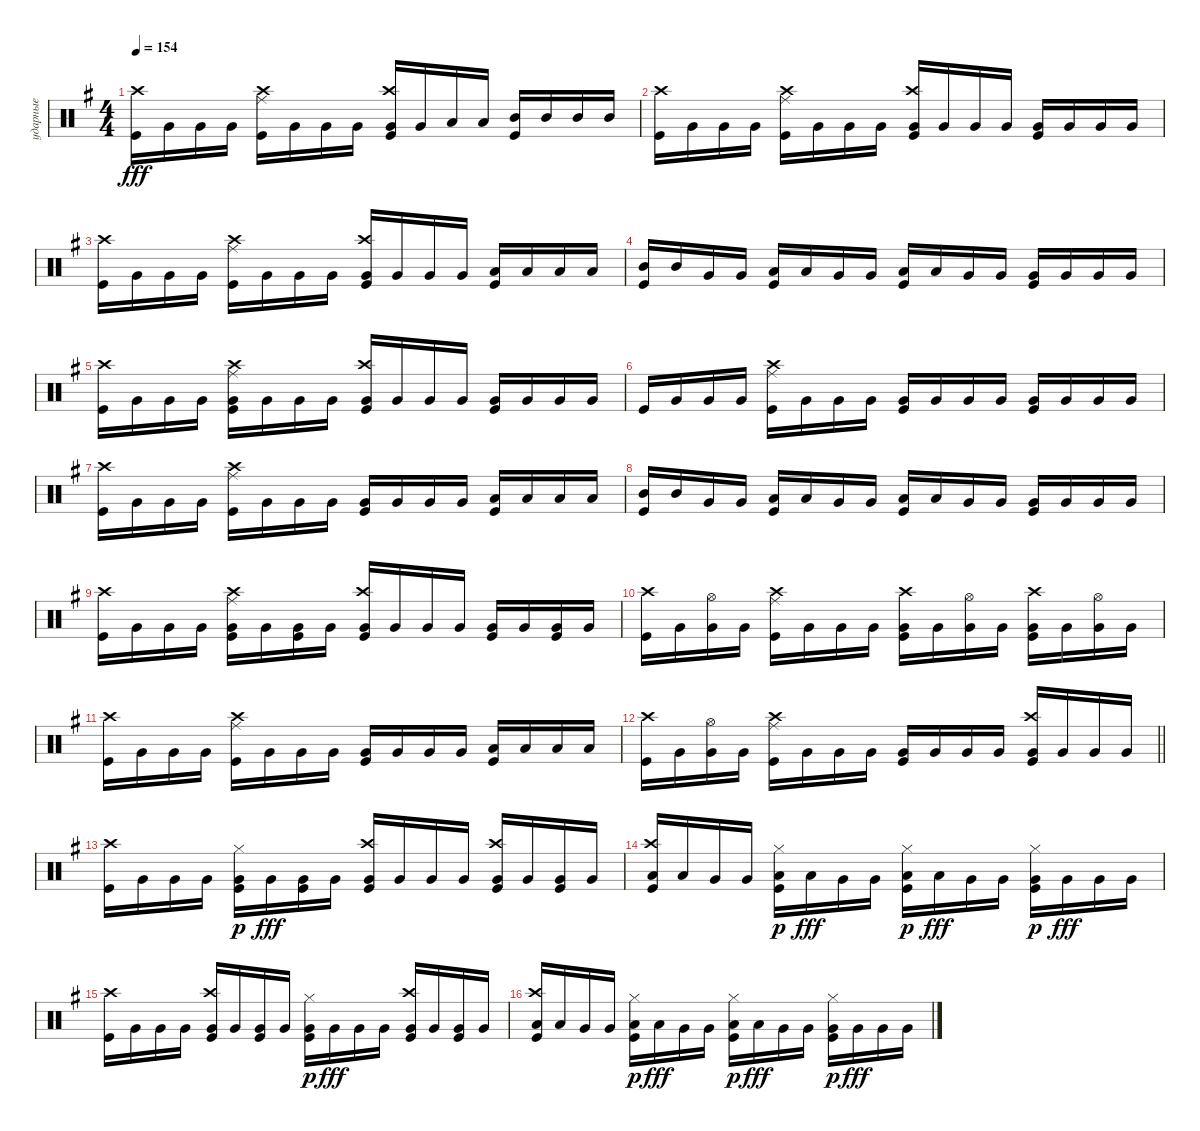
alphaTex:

\track ("ударные" "ударные") {instrument percussion}
\staff {score}
\articulation defaults
\ts (4 4)
\section ("" "")
\tempo 154
\clef neutral
\ks eminor
("Kick (hit)" "Crash high (hit)").16{dy fff} "Very Low Tom (hit)".16 "Very Low Tom (hit)".16 "Very Low Tom (hit)".16 ("Kick (hit)" "Crash high (hit)" "Ride (middle)").16 "Very Low Tom (hit)".16 "Very Low Tom (hit)".16 "Very Low Tom (hit)".16 ("Kick (hit)" "Crash high (hit)" "Very Low Tom (hit)").16 "Very Low Tom (hit)".16 "Low Tom (hit)".16 "Low Tom (hit)".16 ("Mid Tom (hit)" "Kick (hit)").16 "Mid Tom (hit)".16 "Mid Tom (hit)".16 "Mid Tom (hit)".16 |
("Kick (hit)" "Crash high (hit)").16 "Very Low Tom (hit)".16 "Very Low Tom (hit)".16 "Very Low Tom (hit)".16 ("Kick (hit)" "Crash high (hit)" "Ride (middle)").16 "Very Low Tom (hit)".16 "Very Low Tom (hit)".16 "Very Low Tom (hit)".16 ("Kick (hit)" "Crash high (hit)" "Very Low Tom (hit)").16 "Very Low Tom (hit)".16 "Very Low Tom (hit)".16 "Very Low Tom (hit)".16 ("Kick (hit)" "Very Low Tom (hit)").16 "Very Low Tom (hit)".16 "Very Low Tom (hit)".16 "Very Low Tom (hit)".16 |
("Kick (hit)" "Crash high (hit)").16 "Very Low Tom (hit)".16 "Very Low Tom (hit)".16 "Very Low Tom (hit)".16 ("Kick (hit)" "Crash high (hit)" "Ride (middle)").16 "Very Low Tom (hit)".16 "Very Low Tom (hit)".16 "Very Low Tom (hit)".16 ("Kick (hit)" "Crash high (hit)" "Very Low Tom (hit)").16 "Very Low Tom (hit)".16 "Very Low Tom (hit)".16 "Very Low Tom (hit)".16 ("Kick (hit)" "Low Tom (hit)").16 "Low Tom (hit)".16 "Low Tom (hit)".16 "Low Tom (hit)".16 |
("Mid Tom (hit)" "Kick (hit)").16 "Mid Tom (hit)".16 "Very Low Tom (hit)".16 "Very Low Tom (hit)".16 ("Low Tom (hit)" "Kick (hit)").16 "Low Tom (hit)".16 "Very Low Tom (hit)".16 "Very Low Tom (hit)".16 ("Low Floor Tom (hit)" "Kick (hit)").16 "Low Floor Tom (hit)".16 "Very Low Tom (hit)".16 "Very Low Tom (hit)".16 ("Very Low Tom (hit)" "Kick (hit)").16 "Very Low Tom (hit)".16 "Very Low Tom (hit)".16 "Very Low Tom (hit)".16 |
("Kick (hit)" "Crash high (hit)").16 "Very Low Tom (hit)".16 "Very Low Tom (hit)".16 "Very Low Tom (hit)".16 ("Kick (hit)" "Crash high (hit)" "Ride (middle)" "Very Low Tom (hit)").16 "Very Low Tom (hit)".16 "Very Low Tom (hit)".16 "Very Low Tom (hit)".16 ("Kick (hit)" "Crash high (hit)" "Very Low Tom (hit)").16 "Very Low Tom (hit)".16 "Very Low Tom (hit)".16 "Very Low Tom (hit)".16 ("Kick (hit)" "Very Low Tom (hit)").16 "Very Low Tom (hit)".16 "Very Low Tom (hit)".16 "Very Low Tom (hit)".16 |
"Kick (hit)".16 "Very Low Tom (hit)".16 "Very Low Tom (hit)".16 "Very Low Tom (hit)".16 ("Kick (hit)" "Crash high (hit)" "Ride (middle)").16 "Very Low Tom (hit)".16 "Very Low Tom (hit)".16 "Very Low Tom (hit)".16 ("Kick (hit)" "Very Low Tom (hit)").16 "Very Low Tom (hit)".16 "Very Low Tom (hit)".16 "Very Low Tom (hit)".16 ("Kick (hit)" "Very Low Tom (hit)").16 "Very Low Tom (hit)".16 "Very Low Tom (hit)".16 "Very Low Tom (hit)".16 |
("Kick (hit)" "Crash high (hit)").16 "Very Low Tom (hit)".16 "Very Low Tom (hit)".16 "Very Low Tom (hit)".16 ("Kick (hit)" "Crash high (hit)" "Ride (middle)").16 "Very Low Tom (hit)".16 "Very Low Tom (hit)".16 "Very Low Tom (hit)".16 ("Kick (hit)" "Very Low Tom (hit)").16 "Very Low Tom (hit)".16 "Very Low Tom (hit)".16 "Very Low Tom (hit)".16 ("Kick (hit)" "Low Tom (hit)").16 "Low Tom (hit)".16 "Low Tom (hit)".16 "Low Tom (hit)".16 |
("Mid Tom (hit)" "Kick (hit)").16 "Mid Tom (hit)".16 "Very Low Tom (hit)".16 "Very Low Tom (hit)".16 ("Low Tom (hit)" "Kick (hit)").16 "Low Tom (hit)".16 "Very Low Tom (hit)".16 "Very Low Tom (hit)".16 ("Low Floor Tom (hit)" "Kick (hit)").16 "Low Floor Tom (hit)".16 "Very Low Tom (hit)".16 "Very Low Tom (hit)".16 ("Very Low Tom (hit)" "Kick (hit)").16 "Very Low Tom (hit)".16 "Very Low Tom (hit)".16 "Very Low Tom (hit)".16 |
("Kick (hit)" "Crash high (hit)").16 "Very Low Tom (hit)".16 "Very Low Tom (hit)".16 "Very Low Tom (hit)".16 ("Kick (hit)" "Crash high (hit)" "Ride (middle)" "Very Low Tom (hit)").16 "Very Low Tom (hit)".16 ("Kick (hit)" "Very Low Tom (hit)").16 "Very Low Tom (hit)".16 ("Kick (hit)" "Crash high (hit)" "Very Low Tom (hit)").16 "Very Low Tom (hit)".16 "Very Low Tom (hit)".16 "Very Low Tom (hit)".16 ("Kick (hit)" "Very Low Tom (hit)").16 "Very Low Tom (hit)".16 ("Very Low Tom (hit)" "Kick (hit)").16 "Very Low Tom (hit)".16 |
("Kick (hit)" "Crash high (hit)").16 "Very Low Tom (hit)".16 ("Hi-Hat (open)" "Very Low Tom (hit)").16 "Very Low Tom (hit)".16 ("Kick (hit)" "Crash high (hit)" "Ride (middle)").16 "Very Low Tom (hit)".16 "Very Low Tom (hit)".16 "Very Low Tom (hit)".16 ("Kick (hit)" "Very Low Tom (hit)" "Crash high (hit)").16 "Very Low Tom (hit)".16 ("Very Low Tom (hit)" "Hi-Hat (open)").16 "Very Low Tom (hit)".16 ("Kick (hit)" "Very Low Tom (hit)" "Crash high (hit)").16 "Very Low Tom (hit)".16 ("Very Low Tom (hit)" "Hi-Hat (open)").16 "Very Low Tom (hit)".16 |
("Kick (hit)" "Crash high (hit)").16 "Very Low Tom (hit)".16 "Very Low Tom (hit)".16 "Very Low Tom (hit)".16 ("Kick (hit)" "Crash high (hit)" "Ride (middle)").16 "Very Low Tom (hit)".16 "Very Low Tom (hit)".16 "Very Low Tom (hit)".16 ("Kick (hit)" "Very Low Tom (hit)").16 "Very Low Tom (hit)".16 "Very Low Tom (hit)".16 "Very Low Tom (hit)".16 ("Kick (hit)" "Low Tom (hit)").16 "Low Tom (hit)".16 "Low Tom (hit)".16 "Low Tom (hit)".16 |
\barLineRight lightlight
("Kick (hit)" "Crash high (hit)").16 "Very Low Tom (hit)".16 ("Hi-Hat (open)" "Very Low Tom (hit)").16 "Very Low Tom (hit)".16 ("Kick (hit)" "Crash high (hit)" "Ride (middle)").16 "Very Low Tom (hit)".16 "Very Low Tom (hit)".16 "Very Low Tom (hit)".16 ("Very Low Tom (hit)" "Kick (hit)").16 "Very Low Tom (hit)".16 "Very Low Tom (hit)".16 "Very Low Tom (hit)".16 ("Kick (hit)" "Very Low Tom (hit)" "Crash high (hit)").16 "Very Low Tom (hit)".16 "Very Low Tom (hit)".16 "Very Low Tom (hit)".16 |
\section ("" "")
("Kick (hit)" "Crash high (hit)").16 "Very Low Tom (hit)".16 "Very Low Tom (hit)".16 "Very Low Tom (hit)".16 ("Kick (hit)" "Very Low Tom (hit)" "Hi-Hat (closed)").16{dy p} "Very Low Tom (hit)".16{dy fff} ("Kick (hit)" "Very Low Tom (hit)").16 "Very Low Tom (hit)".16 ("Kick (hit)" "Crash high (hit)" "Very Low Tom (hit)").16 "Very Low Tom (hit)".16 "Very Low Tom (hit)".16 "Very Low Tom (hit)".16 ("Kick (hit)" "Very Low Tom (hit)" "Crash high (hit)").16 "Very Low Tom (hit)".16 ("Very Low Tom (hit)" "Kick (hit)").16 "Very Low Tom (hit)".16 |
("Low Tom (hit)" "Kick (hit)" "Crash high (hit)").16 "Low Tom (hit)".16 "Very Low Tom (hit)".16 "Very Low Tom (hit)".16 ("Low Tom (hit)" "Kick (hit)" "Hi-Hat (closed)").16{dy p} "Low Tom (hit)".16{dy fff} "Very Low Tom (hit)".16 "Very Low Tom (hit)".16 ("Low Floor Tom (hit)" "Kick (hit)" "Hi-Hat (closed)").16{dy p} "Low Floor Tom (hit)".16{dy fff} "Very Low Tom (hit)".16 "Very Low Tom (hit)".16 ("Very Low Tom (hit)" "Kick (hit)" "Hi-Hat (closed)").16{dy p} "Very Low Tom (hit)".16{dy fff} "Very Low Tom (hit)".16 "Very Low Tom (hit)".16 |
("Kick (hit)" "Crash high (hit)").16 "Very Low Tom (hit)".16 "Very Low Tom (hit)".16 "Very Low Tom (hit)".16 ("Kick (hit)" "Very Low Tom (hit)" "Crash high (hit)").16 "Very Low Tom (hit)".16 ("Kick (hit)" "Very Low Tom (hit)").16 "Very Low Tom (hit)".16 ("Very Low Tom (hit)" "Kick (hit)" "Hi-Hat (closed)").16{dy p} "Very Low Tom (hit)".16{dy fff} "Very Low Tom (hit)".16 "Very Low Tom (hit)".16 ("Kick (hit)" "Very Low Tom (hit)" "Crash high (hit)").16 "Very Low Tom (hit)".16 ("Very Low Tom (hit)" "Kick (hit)").16 "Very Low Tom (hit)".16 |
("Low Tom (hit)" "Kick (hit)" "Crash high (hit)").16 "Low Tom (hit)".16 "Very Low Tom (hit)".16 "Very Low Tom (hit)".16 ("Low Tom (hit)" "Kick (hit)" "Hi-Hat (closed)").16{dy p} "Low Tom (hit)".16{dy fff} "Very Low Tom (hit)".16 "Very Low Tom (hit)".16 ("Low Floor Tom (hit)" "Kick (hit)" "Hi-Hat (closed)").16{dy p} "Low Floor Tom (hit)".16{dy fff} "Very Low Tom (hit)".16 "Very Low Tom (hit)".16 ("Very Low Tom (hit)" "Kick (hit)" "Hi-Hat (closed)").16{dy p} "Very Low Tom (hit)".16{dy fff} "Very Low Tom (hit)".16 "Very Low Tom (hit)".16
